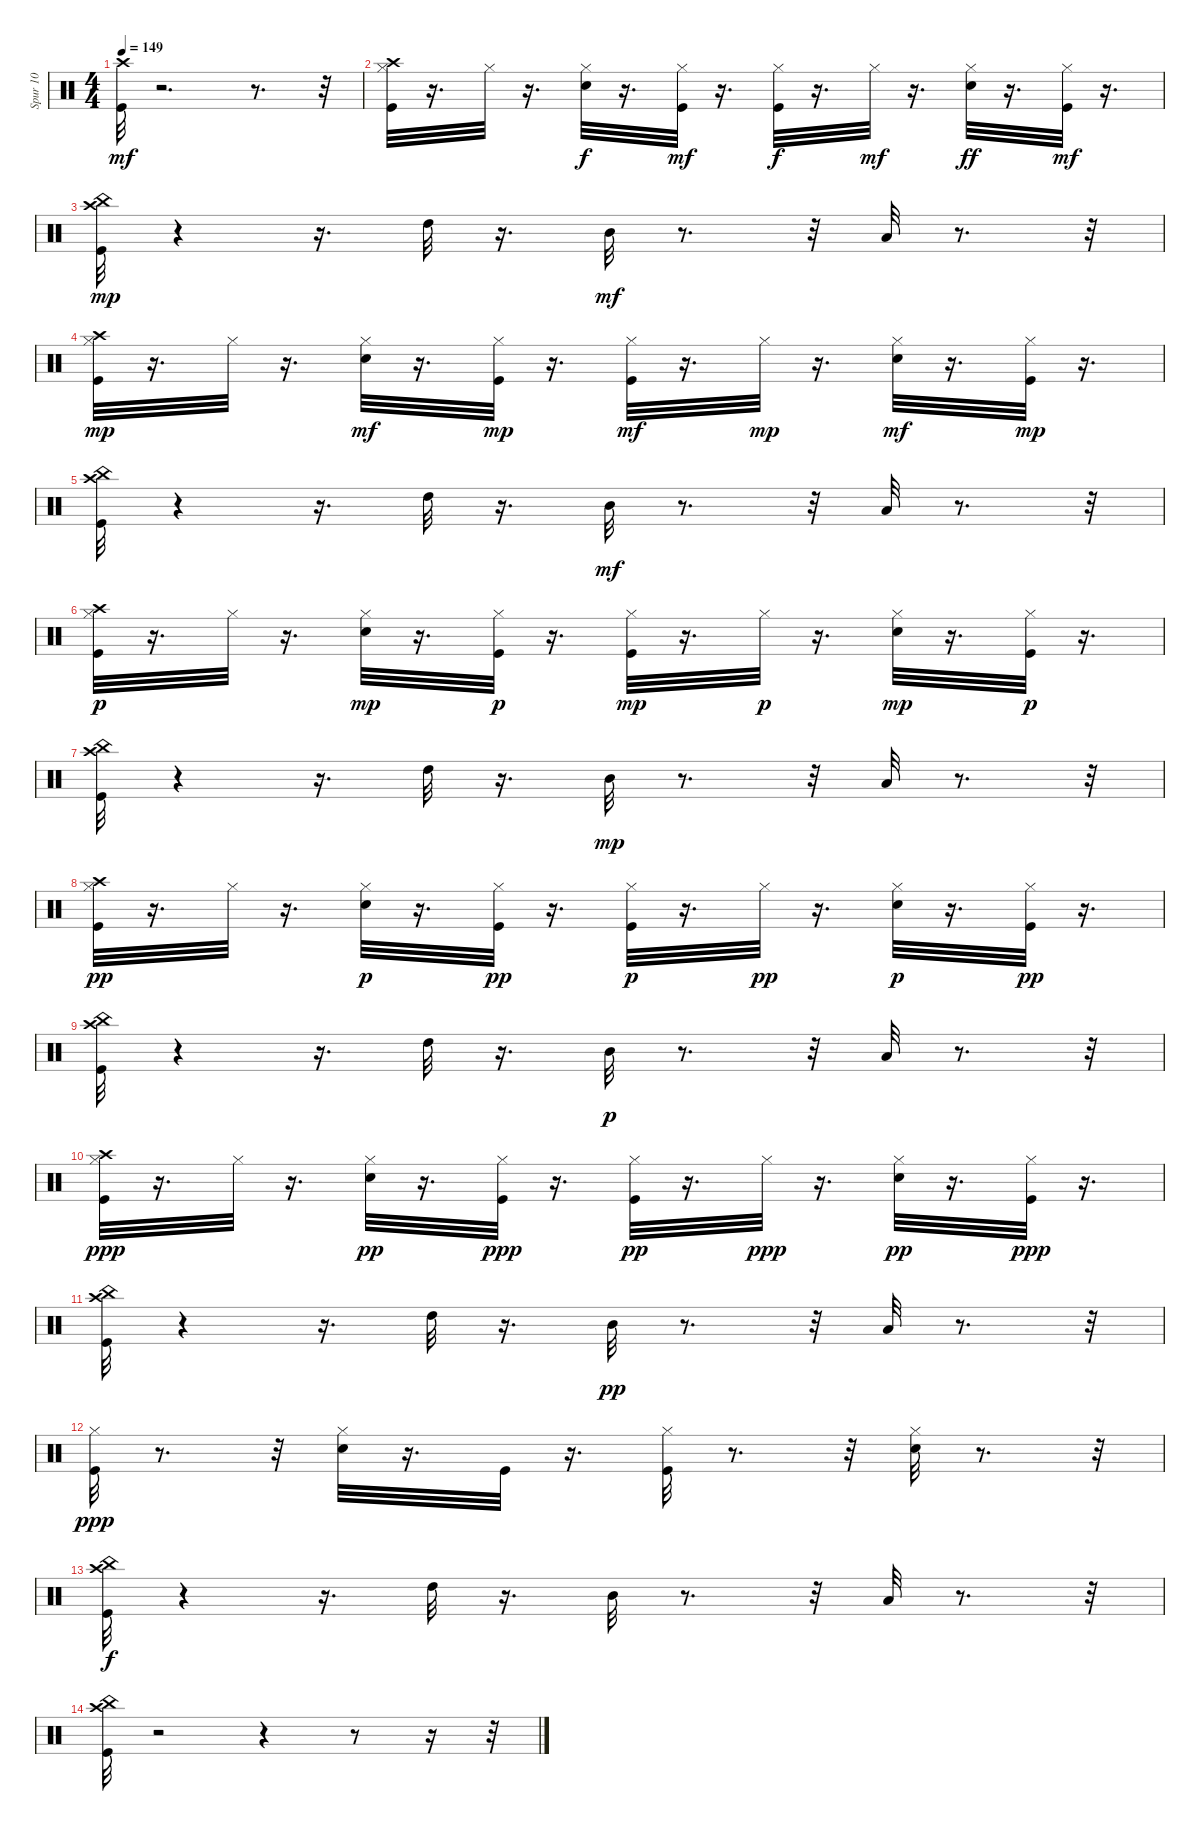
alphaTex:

\track ("Spur 10" "Spur 10") {instrument percussion}
\staff {score}
\articulation defaults
\ts (4 4)
\tempo 149
\clef neutral
\ks c
("Kick (hit)" "Crash high (hit)").32{dy mf} r.2{d} r.8{d} r.32 |
("Kick (hit)" "Hi-Hat (closed)" "Crash high (hit)").32 r.16{d} "Hi-Hat (closed)".32 r.16{d} ("Snare (hit) 2" "Hi-Hat (closed)").32{dy f} r.16{d} ("Kick (hit)" "Hi-Hat (closed)").32{dy mf} r.16{d} ("Kick (hit)" "Hi-Hat (closed)").32{dy f} r.16{d} "Hi-Hat (closed)".32{dy mf} r.16{d} ("Snare (hit) 2" "Hi-Hat (closed)").32{dy ff} r.16{d} ("Kick (hit)" "Hi-Hat (closed)").32{dy mf} r.16{d} |
("Kick (hit)" "China (choke)" "Crash high (hit)").32{dy mp} r.4 r.16{d} "High Tom (hit)".32 r.16{d} "Mid Tom (hit)".32{dy mf} r.8{d} r.32 "Low Tom (hit)".32 r.8{d} r.32 |
("Kick (hit)" "Hi-Hat (closed)" "Crash high (hit)").32{dy mp} r.16{d} "Hi-Hat (closed)".32 r.16{d} ("Snare (hit) 2" "Hi-Hat (closed)").32{dy mf} r.16{d} ("Kick (hit)" "Hi-Hat (closed)").32{dy mp} r.16{d} ("Kick (hit)" "Hi-Hat (closed)").32{dy mf} r.16{d} "Hi-Hat (closed)".32{dy mp} r.16{d} ("Snare (hit) 2" "Hi-Hat (closed)").32{dy mf} r.16{d} ("Kick (hit)" "Hi-Hat (closed)").32{dy mp} r.16{d} |
("Kick (hit)" "China (choke)" "Crash high (hit)").32 r.4 r.16{d} "High Tom (hit)".32 r.16{d} "Mid Tom (hit)".32{dy mf} r.8{d} r.32 "Low Tom (hit)".32 r.8{d} r.32 |
("Kick (hit)" "Hi-Hat (closed)" "Crash high (hit)").32{dy p} r.16{d} "Hi-Hat (closed)".32 r.16{d} ("Snare (hit) 2" "Hi-Hat (closed)").32{dy mp} r.16{d} ("Kick (hit)" "Hi-Hat (closed)").32{dy p} r.16{d} ("Kick (hit)" "Hi-Hat (closed)").32{dy mp} r.16{d} "Hi-Hat (closed)".32{dy p} r.16{d} ("Snare (hit) 2" "Hi-Hat (closed)").32{dy mp} r.16{d} ("Kick (hit)" "Hi-Hat (closed)").32{dy p} r.16{d} |
("Kick (hit)" "China (choke)" "Crash high (hit)").32 r.4 r.16{d} "High Tom (hit)".32 r.16{d} "Mid Tom (hit)".32{dy mp} r.8{d} r.32 "Low Tom (hit)".32 r.8{d} r.32 |
("Kick (hit)" "Hi-Hat (closed)" "Crash high (hit)").32{dy pp} r.16{d} "Hi-Hat (closed)".32 r.16{d} ("Snare (hit) 2" "Hi-Hat (closed)").32{dy p} r.16{d} ("Kick (hit)" "Hi-Hat (closed)").32{dy pp} r.16{d} ("Kick (hit)" "Hi-Hat (closed)").32{dy p} r.16{d} "Hi-Hat (closed)".32{dy pp} r.16{d} ("Snare (hit) 2" "Hi-Hat (closed)").32{dy p} r.16{d} ("Kick (hit)" "Hi-Hat (closed)").32{dy pp} r.16{d} |
("Kick (hit)" "China (choke)" "Crash high (hit)").32 r.4 r.16{d} "High Tom (hit)".32 r.16{d} "Mid Tom (hit)".32{dy p} r.8{d} r.32 "Low Tom (hit)".32 r.8{d} r.32 |
("Kick (hit)" "Hi-Hat (closed)" "Crash high (hit)").32{dy ppp} r.16{d} "Hi-Hat (closed)".32 r.16{d} ("Snare (hit) 2" "Hi-Hat (closed)").32{dy pp} r.16{d} ("Kick (hit)" "Hi-Hat (closed)").32{dy ppp} r.16{d} ("Kick (hit)" "Hi-Hat (closed)").32{dy pp} r.16{d} "Hi-Hat (closed)".32{dy ppp} r.16{d} ("Snare (hit) 2" "Hi-Hat (closed)").32{dy pp} r.16{d} ("Kick (hit)" "Hi-Hat (closed)").32{dy ppp} r.16{d} |
("Kick (hit)" "China (choke)" "Crash high (hit)").32 r.4 r.16{d} "High Tom (hit)".32 r.16{d} "Mid Tom (hit)".32{dy pp} r.8{d} r.32 "Low Tom (hit)".32 r.8{d} r.32 |
("Kick (hit)" "Hi-Hat (closed)").32{dy ppp} r.8{d} r.32 ("Snare (hit) 2" "Hi-Hat (closed)").32 r.16{d} "Kick (hit)".32 r.16{d} ("Kick (hit)" "Hi-Hat (closed)").32 r.8{d} r.32 ("Snare (hit) 2" "Hi-Hat (closed)").32 r.8{d} r.32 |
("Kick (hit)" "China (choke)" "Crash high (hit)").32{dy f} r.4 r.16{d} "High Tom (hit)".32 r.16{d} "Mid Tom (hit)".32 r.8{d} r.32 "Low Tom (hit)".32 r.8{d} r.32 |
("Kick (hit)" "China (choke)" "Crash high (hit)").32 r.2 r.4 r.8 r.16 r.32
